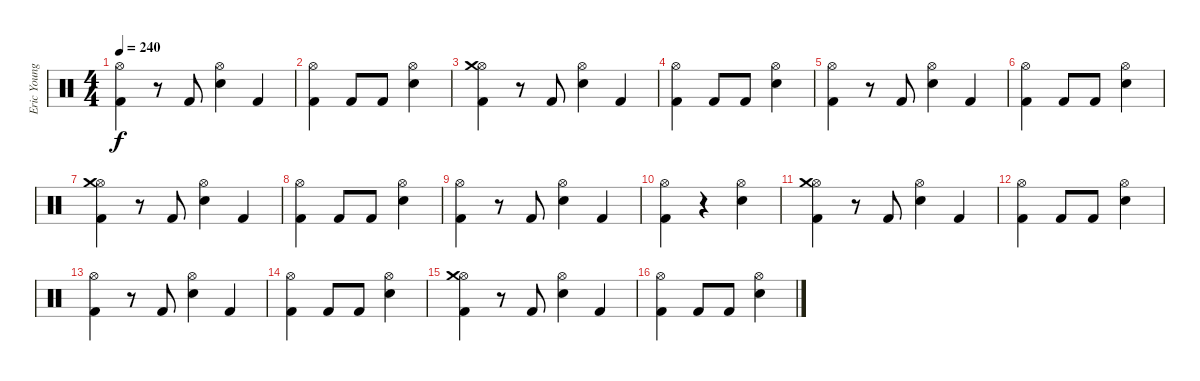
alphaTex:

\track ("Eric Young (Drums)" "Eric Young") {instrument percussion}
\staff {score}
\articulation defaults
\ts (4 4)
\tempo 240
\clef neutral
\ks c
("Hi-Hat (open)" "Kick (hit) 2").4{dy f} r.8 "Kick (hit) 2".8 ("Hi-Hat (open)" "Snare (hit) 2").4 "Kick (hit) 2".4 |
("Hi-Hat (open)" "Kick (hit) 2").4 "Kick (hit) 2".8 "Kick (hit) 2".8 ("Hi-Hat (open)" "Snare (hit) 2").4 |
("Hi-Hat (open)" "Kick (hit) 2" "Crash medium (hit)").4 r.8 "Kick (hit) 2".8 ("Hi-Hat (open)" "Snare (hit) 2").4 "Kick (hit) 2".4 |
("Hi-Hat (open)" "Kick (hit) 2").4 "Kick (hit) 2".8 "Kick (hit) 2".8 ("Hi-Hat (open)" "Snare (hit) 2").4 |
("Hi-Hat (open)" "Kick (hit) 2").4 r.8 "Kick (hit) 2".8 ("Hi-Hat (open)" "Snare (hit) 2").4 "Kick (hit) 2".4 |
("Hi-Hat (open)" "Kick (hit) 2").4 "Kick (hit) 2".8 "Kick (hit) 2".8 ("Hi-Hat (open)" "Snare (hit) 2").4 |
("Hi-Hat (open)" "Kick (hit) 2" "Crash medium (hit)").4 r.8 "Kick (hit) 2".8 ("Hi-Hat (open)" "Snare (hit) 2").4 "Kick (hit) 2".4 |
("Hi-Hat (open)" "Kick (hit) 2").4 "Kick (hit) 2".8 "Kick (hit) 2".8 ("Hi-Hat (open)" "Snare (hit) 2").4 |
("Hi-Hat (open)" "Kick (hit) 2").4 r.8 "Kick (hit) 2".8 ("Hi-Hat (open)" "Snare (hit) 2").4 "Kick (hit) 2".4 |
("Hi-Hat (open)" "Kick (hit) 2").4 r.4 ("Hi-Hat (open)" "Snare (hit) 2").4 |
("Hi-Hat (open)" "Kick (hit) 2" "Crash medium (hit)").4 r.8 "Kick (hit) 2".8 ("Hi-Hat (open)" "Snare (hit) 2").4 "Kick (hit) 2".4 |
("Hi-Hat (open)" "Kick (hit) 2").4 "Kick (hit) 2".8 "Kick (hit) 2".8 ("Hi-Hat (open)" "Snare (hit) 2").4 |
("Hi-Hat (open)" "Kick (hit) 2").4 r.8 "Kick (hit) 2".8 ("Hi-Hat (open)" "Snare (hit) 2").4 "Kick (hit) 2".4 |
("Hi-Hat (open)" "Kick (hit) 2").4 "Kick (hit) 2".8 "Kick (hit) 2".8 ("Hi-Hat (open)" "Snare (hit) 2").4 |
("Hi-Hat (open)" "Kick (hit) 2" "Crash medium (hit)").4 r.8 "Kick (hit) 2".8 ("Hi-Hat (open)" "Snare (hit) 2").4 "Kick (hit) 2".4 |
("Hi-Hat (open)" "Kick (hit) 2").4 "Kick (hit) 2".8 "Kick (hit) 2".8 ("Hi-Hat (open)" "Snare (hit) 2").4
